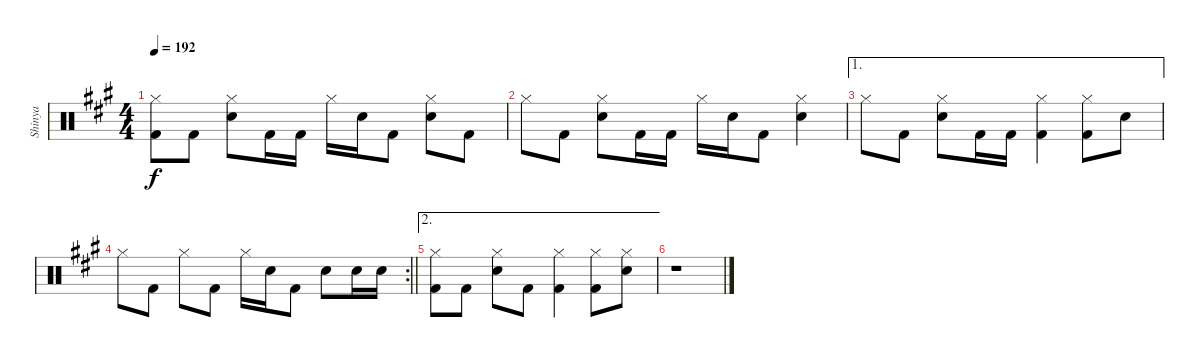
\track ("Shinya" "Shinya") {instrument percussion}
\staff {score}
\articulation defaults
\ts (4 4)
\tempo 192
\clef neutral
\ks a
("Hi-Hat (closed)" "Kick (hit) 2").8{dy f} "Kick (hit) 2".8 ("Hi-Hat (closed)" "Snare (hit) 2").8 "Kick (hit) 2".16 "Kick (hit) 2".16 "Hi-Hat (closed)".16 "Snare (hit) 2".16 "Kick (hit) 2".8 ("Hi-Hat (closed)" "Snare (hit) 2").8 "Kick (hit) 2".8 |
"Hi-Hat (closed)".8 "Kick (hit) 2".8 ("Hi-Hat (closed)" "Snare (hit) 2").8 "Kick (hit) 2".16 "Kick (hit) 2".16 "Hi-Hat (closed)".16 "Snare (hit) 2".16 "Kick (hit) 2".8 ("Hi-Hat (closed)" "Snare (hit) 2").4 |
\ae 1 "Hi-Hat (closed)".8 "Kick (hit) 2".8
("Hi-Hat (closed)" "Snare (hit) 2").8 "Kick (hit) 2".16 "Kick (hit) 2".16 ("Hi-Hat (closed)" "Kick (hit) 2").4 ("Hi-Hat (closed)" "Kick (hit) 2").8 "Snare (hit) 2".8 |
\rc 2
\barLineRight lightlight "Hi-Hat (closed)".8 "Kick (hit) 2".8 "Hi-Hat (closed)".8 "Kick (hit) 2".8 "Hi-Hat (closed)".16 "Snare (hit) 2".16 "Kick (hit) 2".8 "Snare (hit) 2".8 "Snare (hit) 2".16 "Snare (hit) 2".16
|
\ae 2
("Hi-Hat (closed)" "Kick (hit) 2").8 "Kick (hit) 2".8 ("Hi-Hat (closed)" "Snare (hit) 2").8 "Kick (hit) 2".8 ("Hi-Hat (closed)" "Kick (hit) 2").4 ("Hi-Hat (closed)" "Kick (hit) 2").8 ("Hi-Hat (closed)" "Snare (hit) 2").8 |
r.1
